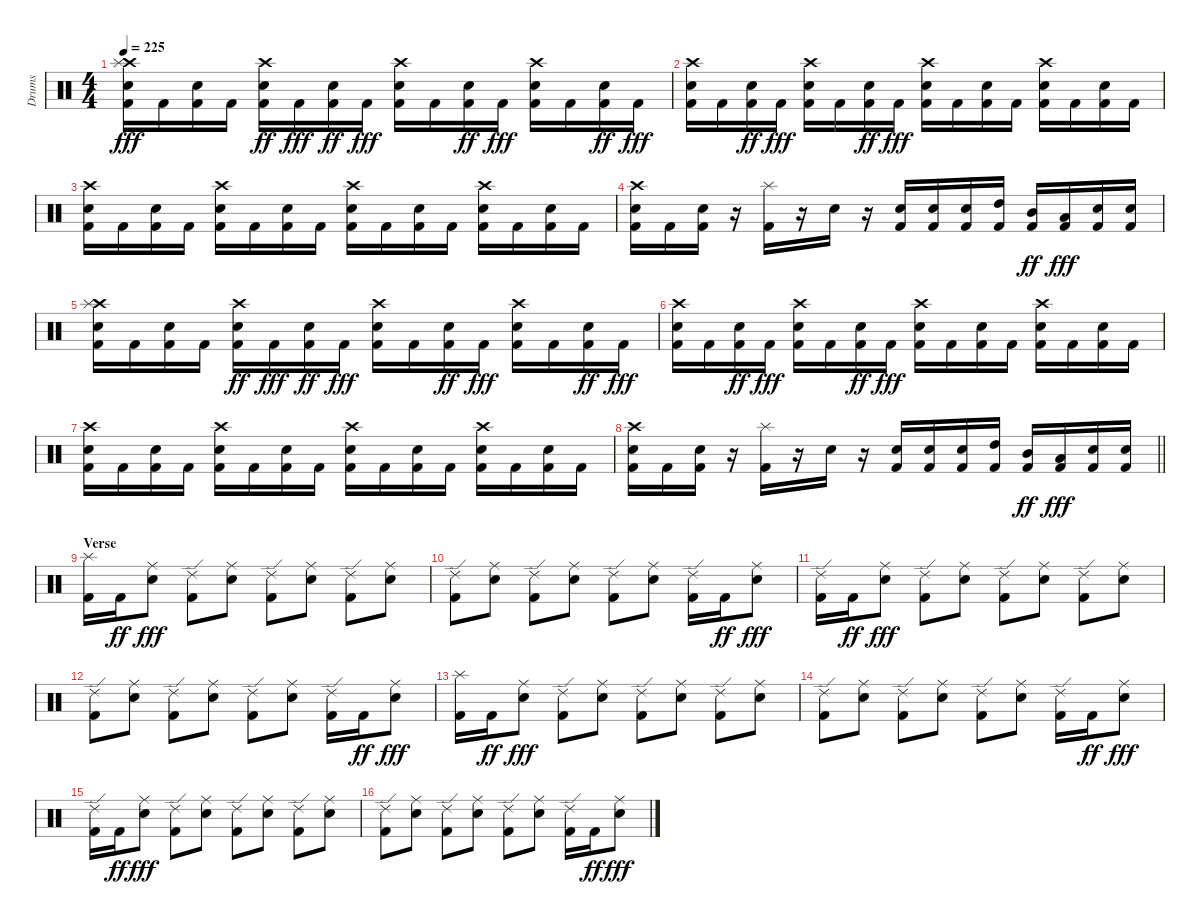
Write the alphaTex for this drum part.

\track ("Drums" "Drums") {instrument percussion}
\staff {score}
\articulation defaults
\ts (4 4)
\tempo 225
\clef neutral
\ks c
("Kick (hit) 2" "Snare (hit) 2" "Crash high (hit)" "Splash (hit)").16{dy fff} "Kick (hit) 2".16 ("Snare (hit) 2" "Kick (hit) 2").16 "Kick (hit) 2".16 ("Crash high (hit)" "Kick (hit) 2" "Snare (hit) 2").16{dy ff} "Kick (hit) 2".16{dy fff} ("Kick (hit) 2" "Snare (hit) 2").16{dy ff} "Kick (hit) 2".16{dy fff} ("Kick (hit) 2" "Snare (hit) 2" "Crash high (hit)").16 "Kick (hit) 2".16 ("Kick (hit) 2" "Snare (hit) 2").16{dy ff} "Kick (hit) 2".16{dy fff} ("Kick (hit) 2" "Snare (hit) 2" "Crash high (hit)").16 "Kick (hit) 2".16 ("Kick (hit) 2" "Snare (hit) 2").16{dy ff} "Kick (hit) 2".16{dy fff} |
("Kick (hit) 2" "Snare (hit) 2" "Crash high (hit)").16 "Kick (hit) 2".16 ("Kick (hit) 2" "Snare (hit) 2").16{dy ff} "Kick (hit) 2".16{dy fff} ("Kick (hit) 2" "Snare (hit) 2" "Crash high (hit)").16 "Kick (hit) 2".16 ("Kick (hit) 2" "Snare (hit) 2").16{dy ff} "Kick (hit) 2".16{dy fff} ("Kick (hit) 2" "Snare (hit) 2" "Crash high (hit)").16 "Kick (hit) 2".16 ("Snare (hit) 2" "Kick (hit) 2").16 "Kick (hit) 2".16 ("Crash high (hit)" "Kick (hit) 2" "Snare (hit) 2").16 "Kick (hit) 2".16 ("Snare (hit) 2" "Kick (hit) 2").16 "Kick (hit) 2".16 |
("Kick (hit) 2" "Snare (hit) 2" "Crash high (hit)").16 "Kick (hit) 2".16 ("Kick (hit) 2" "Snare (hit) 2").16 "Kick (hit) 2".16 ("Kick (hit) 2" "Snare (hit) 2" "Crash high (hit)").16 "Kick (hit) 2".16 ("Kick (hit) 2" "Snare (hit) 2").16 "Kick (hit) 2".16 ("Kick (hit) 2" "Snare (hit) 2" "Crash high (hit)").16 "Kick (hit) 2".16 ("Kick (hit) 2" "Snare (hit) 2").16 "Kick (hit) 2".16 ("Kick (hit) 2" "Snare (hit) 2" "Crash high (hit)").16 "Kick (hit) 2".16 ("Kick (hit) 2" "Snare (hit) 2").16 "Kick (hit) 2".16 |
("Kick (hit) 2" "Snare (hit) 2" "Crash high (hit)").16 "Kick (hit) 2".16 ("Kick (hit) 2" "Snare (hit) 2").16 r.16 ("Kick (hit) 2" "Splash (hit)").16 r.16 "Snare (hit) 2".16 r.16 ("Kick (hit) 2" "Snare (hit) 2").16 ("Snare (hit) 2" "Kick (hit) 2").16 ("Snare (hit) 2" "Kick (hit) 2").16 ("High Tom (hit)" "Kick (hit) 2").16 ("Mid Tom (hit)" "Kick (hit) 2").16{dy ff} ("Low Tom (hit)" "Kick (hit) 2").16{dy fff} ("Kick (hit) 2" "Snare (hit) 2").16 ("Kick (hit) 2" "Snare (hit) 2").16 |
("Kick (hit) 2" "Snare (hit) 2" "Crash high (hit)" "Splash (hit)").16 "Kick (hit) 2".16 ("Snare (hit) 2" "Kick (hit) 2").16 "Kick (hit) 2".16 ("Crash high (hit)" "Kick (hit) 2" "Snare (hit) 2").16{dy ff} "Kick (hit) 2".16{dy fff} ("Kick (hit) 2" "Snare (hit) 2").16{dy ff} "Kick (hit) 2".16{dy fff} ("Kick (hit) 2" "Snare (hit) 2" "Crash high (hit)").16 "Kick (hit) 2".16 ("Kick (hit) 2" "Snare (hit) 2").16{dy ff} "Kick (hit) 2".16{dy fff} ("Kick (hit) 2" "Snare (hit) 2" "Crash high (hit)").16 "Kick (hit) 2".16 ("Kick (hit) 2" "Snare (hit) 2").16{dy ff} "Kick (hit) 2".16{dy fff} |
("Kick (hit) 2" "Snare (hit) 2" "Crash high (hit)").16 "Kick (hit) 2".16 ("Kick (hit) 2" "Snare (hit) 2").16{dy ff} "Kick (hit) 2".16{dy fff} ("Kick (hit) 2" "Snare (hit) 2" "Crash high (hit)").16 "Kick (hit) 2".16 ("Kick (hit) 2" "Snare (hit) 2").16{dy ff} "Kick (hit) 2".16{dy fff} ("Kick (hit) 2" "Snare (hit) 2" "Crash high (hit)").16 "Kick (hit) 2".16 ("Snare (hit) 2" "Kick (hit) 2").16 "Kick (hit) 2".16 ("Crash high (hit)" "Kick (hit) 2" "Snare (hit) 2").16 "Kick (hit) 2".16 ("Snare (hit) 2" "Kick (hit) 2").16 "Kick (hit) 2".16 |
("Kick (hit) 2" "Snare (hit) 2" "Crash high (hit)").16 "Kick (hit) 2".16 ("Kick (hit) 2" "Snare (hit) 2").16 "Kick (hit) 2".16 ("Kick (hit) 2" "Snare (hit) 2" "Crash high (hit)").16 "Kick (hit) 2".16 ("Kick (hit) 2" "Snare (hit) 2").16 "Kick (hit) 2".16 ("Kick (hit) 2" "Snare (hit) 2" "Crash high (hit)").16 "Kick (hit) 2".16 ("Kick (hit) 2" "Snare (hit) 2").16 "Kick (hit) 2".16 ("Kick (hit) 2" "Snare (hit) 2" "Crash high (hit)").16 "Kick (hit) 2".16 ("Kick (hit) 2" "Snare (hit) 2").16 "Kick (hit) 2".16 |
\barLineRight lightlight
("Kick (hit) 2" "Snare (hit) 2" "Crash high (hit)").16 "Kick (hit) 2".16 ("Kick (hit) 2" "Snare (hit) 2").16 r.16 ("Kick (hit) 2" "Splash (hit)").16 r.16 "Snare (hit) 2".16 r.16 ("Kick (hit) 2" "Snare (hit) 2").16 ("Snare (hit) 2" "Kick (hit) 2").16 ("Snare (hit) 2" "Kick (hit) 2").16 ("High Tom (hit)" "Kick (hit) 2").16 ("Mid Tom (hit)" "Kick (hit) 2").16{dy ff} ("Low Tom (hit)" "Kick (hit) 2").16{dy fff} ("Kick (hit) 2" "Snare (hit) 2").16 ("Kick (hit) 2" "Snare (hit) 2").16 |
\section ("" "Verse")
("Kick (hit) 2" "Splash (hit)").16 "Kick (hit) 2".16{dy ff} ("Snare (hit) 2" "Ride (middle)").8{dy fff} ("Kick (hit) 2" "Ride (edge) 2").8 ("Snare (hit) 2" "Ride (middle)").8 ("Kick (hit) 2" "Ride (edge) 2").8 ("Snare (hit) 2" "Ride (middle)").8 ("Kick (hit) 2" "Ride (edge) 2").8 ("Snare (hit) 2" "Ride (middle)").8 |
("Kick (hit) 2" "Ride (edge) 2").8 ("Snare (hit) 2" "Ride (middle)").8 ("Kick (hit) 2" "Ride (edge) 2").8 ("Snare (hit) 2" "Ride (middle)").8 ("Kick (hit) 2" "Ride (edge) 2").8 ("Snare (hit) 2" "Ride (middle)").8 ("Kick (hit) 2" "Ride (edge) 2").16 "Kick (hit) 2".16{dy ff} ("Snare (hit) 2" "Ride (middle)").8{dy fff} |
("Kick (hit) 2" "Ride (edge) 2").16 "Kick (hit) 2".16{dy ff} ("Snare (hit) 2" "Ride (middle)").8{dy fff} ("Kick (hit) 2" "Ride (edge) 2").8 ("Snare (hit) 2" "Ride (middle)").8 ("Kick (hit) 2" "Ride (edge) 2").8 ("Snare (hit) 2" "Ride (middle)").8 ("Kick (hit) 2" "Ride (edge) 2").8 ("Snare (hit) 2" "Ride (middle)").8 |
("Kick (hit) 2" "Ride (edge) 2").8 ("Snare (hit) 2" "Ride (middle)").8 ("Kick (hit) 2" "Ride (edge) 2").8 ("Snare (hit) 2" "Ride (middle)").8 ("Kick (hit) 2" "Ride (edge) 2").8 ("Snare (hit) 2" "Ride (middle)").8 ("Kick (hit) 2" "Ride (edge) 2").16 "Kick (hit) 2".16{dy ff} ("Snare (hit) 2" "Ride (middle)").8{dy fff} |
("Kick (hit) 2" "Splash (hit)").16 "Kick (hit) 2".16{dy ff} ("Snare (hit) 2" "Ride (middle)").8{dy fff} ("Kick (hit) 2" "Ride (edge) 2").8 ("Snare (hit) 2" "Ride (middle)").8 ("Kick (hit) 2" "Ride (edge) 2").8 ("Snare (hit) 2" "Ride (middle)").8 ("Kick (hit) 2" "Ride (edge) 2").8 ("Snare (hit) 2" "Ride (middle)").8 |
("Kick (hit) 2" "Ride (edge) 2").8 ("Snare (hit) 2" "Ride (middle)").8 ("Kick (hit) 2" "Ride (edge) 2").8 ("Snare (hit) 2" "Ride (middle)").8 ("Kick (hit) 2" "Ride (edge) 2").8 ("Snare (hit) 2" "Ride (middle)").8 ("Kick (hit) 2" "Ride (edge) 2").16 "Kick (hit) 2".16{dy ff} ("Snare (hit) 2" "Ride (middle)").8{dy fff} |
("Kick (hit) 2" "Ride (edge) 2").16 "Kick (hit) 2".16{dy ff} ("Snare (hit) 2" "Ride (middle)").8{dy fff} ("Kick (hit) 2" "Ride (edge) 2").8 ("Snare (hit) 2" "Ride (middle)").8 ("Kick (hit) 2" "Ride (edge) 2").8 ("Snare (hit) 2" "Ride (middle)").8 ("Kick (hit) 2" "Ride (edge) 2").8 ("Snare (hit) 2" "Ride (middle)").8 |
("Kick (hit) 2" "Ride (edge) 2").8 ("Snare (hit) 2" "Ride (middle)").8 ("Kick (hit) 2" "Ride (edge) 2").8 ("Snare (hit) 2" "Ride (middle)").8 ("Kick (hit) 2" "Ride (edge) 2").8 ("Snare (hit) 2" "Ride (middle)").8 ("Kick (hit) 2" "Ride (edge) 2").16 "Kick (hit) 2".16{dy ff} ("Snare (hit) 2" "Ride (middle)").8{dy fff}
